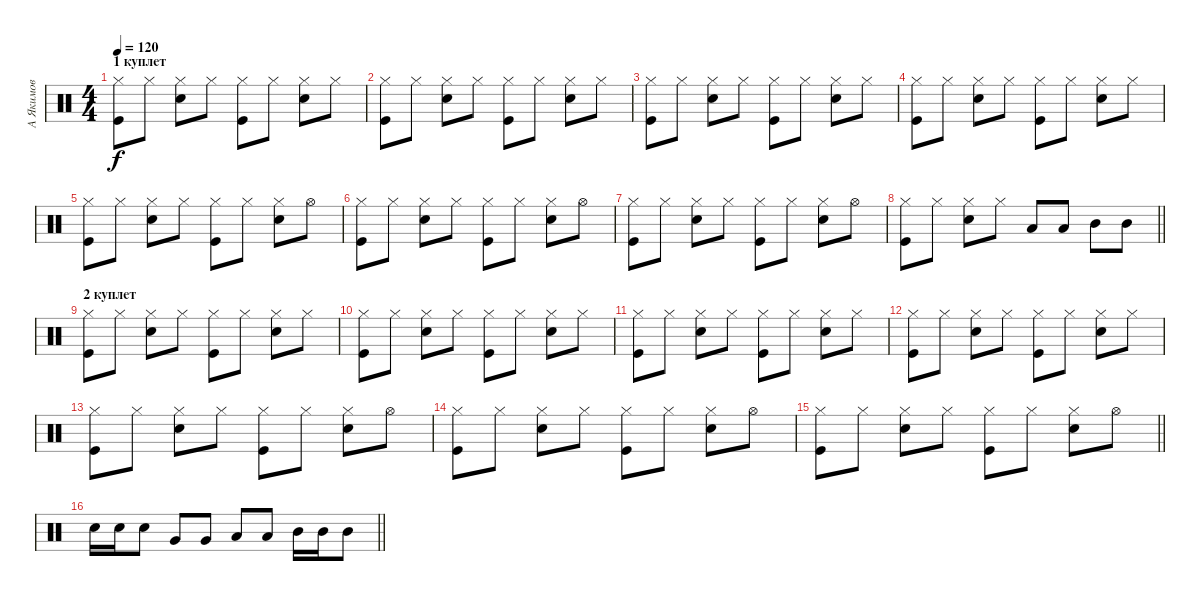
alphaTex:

\track ("А Якимов" "А Якимов") {instrument percussion}
\staff {score}
\articulation defaults
\ts (4 4)
\section ("" "1 куплет")
\tempo 120
\clef neutral
\ks c
("Hi-Hat (closed)" "Kick (hit)").8{dy f} "Hi-Hat (closed)".8 ("Hi-Hat (closed)" "Snare (hit) 2").8 "Hi-Hat (closed)".8 ("Hi-Hat (closed)" "Kick (hit)").8 "Hi-Hat (closed)".8 ("Hi-Hat (closed)" "Snare (hit) 2").8 "Hi-Hat (closed)".8 |
("Hi-Hat (closed)" "Kick (hit)").8 "Hi-Hat (closed)".8 ("Hi-Hat (closed)" "Snare (hit) 2").8 "Hi-Hat (closed)".8 ("Hi-Hat (closed)" "Kick (hit)").8 "Hi-Hat (closed)".8 ("Hi-Hat (closed)" "Snare (hit) 2").8 "Hi-Hat (closed)".8 |
("Hi-Hat (closed)" "Kick (hit)").8 "Hi-Hat (closed)".8 ("Hi-Hat (closed)" "Snare (hit) 2").8 "Hi-Hat (closed)".8 ("Hi-Hat (closed)" "Kick (hit)").8 "Hi-Hat (closed)".8 ("Hi-Hat (closed)" "Snare (hit) 2").8 "Hi-Hat (closed)".8 |
("Hi-Hat (closed)" "Kick (hit)").8 "Hi-Hat (closed)".8 ("Hi-Hat (closed)" "Snare (hit) 2").8 "Hi-Hat (closed)".8 ("Hi-Hat (closed)" "Kick (hit)").8 "Hi-Hat (closed)".8 ("Hi-Hat (closed)" "Snare (hit) 2").8 "Hi-Hat (closed)".8 |
("Hi-Hat (closed)" "Kick (hit)").8 "Hi-Hat (closed)".8 ("Hi-Hat (closed)" "Snare (hit) 2").8 "Hi-Hat (closed)".8 ("Hi-Hat (closed)" "Kick (hit)").8 "Hi-Hat (closed)".8 ("Hi-Hat (closed)" "Snare (hit) 2").8 "Hi-Hat (open)".8 |
("Hi-Hat (closed)" "Kick (hit)").8 "Hi-Hat (closed)".8 ("Hi-Hat (closed)" "Snare (hit) 2").8 "Hi-Hat (closed)".8 ("Hi-Hat (closed)" "Kick (hit)").8 "Hi-Hat (closed)".8 ("Snare (hit) 2" "Hi-Hat (closed)").8 "Hi-Hat (open)".8 |
("Hi-Hat (closed)" "Kick (hit)").8 "Hi-Hat (closed)".8 ("Hi-Hat (closed)" "Snare (hit) 2").8 "Hi-Hat (closed)".8 ("Hi-Hat (closed)" "Kick (hit)").8 "Hi-Hat (closed)".8 ("Snare (hit) 2" "Hi-Hat (closed)").8 "Hi-Hat (open)".8 |
\barLineRight lightlight
("Hi-Hat (closed)" "Kick (hit)").8 "Hi-Hat (closed)".8 ("Hi-Hat (closed)" "Snare (hit) 2").8 "Hi-Hat (closed)".8 "Low Tom (hit)".8 "Low Tom (hit)".8 "Mid Tom (hit)".8 "Mid Tom (hit)".8 |
\section ("" "2 куплет")
("Hi-Hat (closed)" "Kick (hit)").8 "Hi-Hat (closed)".8 ("Hi-Hat (closed)" "Snare (hit) 2").8 "Hi-Hat (closed)".8 ("Hi-Hat (closed)" "Kick (hit)").8 "Hi-Hat (closed)".8 ("Hi-Hat (closed)" "Snare (hit) 2").8 "Hi-Hat (closed)".8 |
("Hi-Hat (closed)" "Kick (hit)").8 "Hi-Hat (closed)".8 ("Hi-Hat (closed)" "Snare (hit) 2").8 "Hi-Hat (closed)".8 ("Hi-Hat (closed)" "Kick (hit)").8 "Hi-Hat (closed)".8 ("Hi-Hat (closed)" "Snare (hit) 2").8 "Hi-Hat (closed)".8 |
("Hi-Hat (closed)" "Kick (hit)").8 "Hi-Hat (closed)".8 ("Hi-Hat (closed)" "Snare (hit) 2").8 "Hi-Hat (closed)".8 ("Hi-Hat (closed)" "Kick (hit)").8 "Hi-Hat (closed)".8 ("Hi-Hat (closed)" "Snare (hit) 2").8 "Hi-Hat (closed)".8 |
("Hi-Hat (closed)" "Kick (hit)").8 "Hi-Hat (closed)".8 ("Hi-Hat (closed)" "Snare (hit) 2").8 "Hi-Hat (closed)".8 ("Hi-Hat (closed)" "Kick (hit)").8 "Hi-Hat (closed)".8 ("Hi-Hat (closed)" "Snare (hit) 2").8 "Hi-Hat (closed)".8 |
("Hi-Hat (closed)" "Kick (hit)").8 "Hi-Hat (closed)".8 ("Hi-Hat (closed)" "Snare (hit) 2").8 "Hi-Hat (closed)".8 ("Hi-Hat (closed)" "Kick (hit)").8 "Hi-Hat (closed)".8 ("Hi-Hat (closed)" "Snare (hit) 2").8 "Hi-Hat (open)".8 |
("Hi-Hat (closed)" "Kick (hit)").8 "Hi-Hat (closed)".8 ("Hi-Hat (closed)" "Snare (hit) 2").8 "Hi-Hat (closed)".8 ("Hi-Hat (closed)" "Kick (hit)").8 "Hi-Hat (closed)".8 ("Snare (hit) 2" "Hi-Hat (closed)").8 "Hi-Hat (open)".8 |
\barLineRight lightlight
("Hi-Hat (closed)" "Kick (hit)").8 "Hi-Hat (closed)".8 ("Hi-Hat (closed)" "Snare (hit) 2").8 "Hi-Hat (closed)".8 ("Hi-Hat (closed)" "Kick (hit)").8 "Hi-Hat (closed)".8 ("Snare (hit) 2" "Hi-Hat (closed)").8 "Hi-Hat (open)".8 |
\section ("" "")
\barLineRight lightlight "Snare (hit) 2".16 "Snare (hit) 2".16 "Snare (hit) 2".8 "Very Low Tom (hit)".8 "Very Low Tom (hit)".8 "Low Tom (hit)".8 "Low Tom (hit)".8 "Mid Tom (hit)".16 "Mid Tom (hit)".16 "Mid Tom (hit)".8
